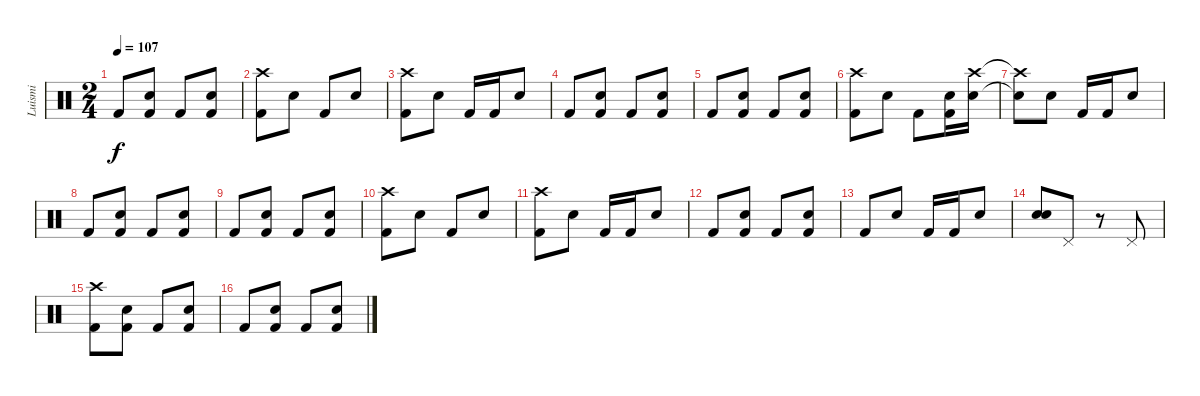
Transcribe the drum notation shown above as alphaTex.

\track ("Luismi" "Luismi") {instrument percussion}
\staff {score}
\articulation defaults
\ts (2 4)
\tempo 107
\clef neutral
\ks c "Kick (hit) 2".8{dy f}
("Snare (hit) 2" "Kick (hit) 2").8 "Kick (hit) 2".8 ("Snare (hit) 2" "Kick (hit) 2").8 |
("Crash high (hit)" "Kick (hit) 2").8 "Snare (hit) 2".8 "Kick (hit) 2".8 "Snare (hit) 2".8 |
("Crash high (hit)" "Kick (hit) 2").8 "Snare (hit) 2".8 "Kick (hit) 2".16 "Kick (hit) 2".16 "Snare (hit) 2".8 |
"Kick (hit) 2".8 ("Snare (hit) 2" "Kick (hit) 2").8 "Kick (hit) 2".8 ("Snare (hit) 2" "Kick (hit) 2").8 |
"Kick (hit) 2".8 ("Snare (hit) 2" "Kick (hit) 2").8 "Kick (hit) 2".8 ("Snare (hit) 2" "Kick (hit) 2").8 |
("Crash high (hit)" "Kick (hit) 2").8 "Snare (hit) 2".8 "Kick (hit) 2".8 ("Snare (hit) 2" "Kick (hit) 2").16 ("Crash high (hit)" "Snare (hit) 2").16 |
("Crash high (hit)"{t} "Snare (hit)"{t}).8 "Snare (hit) 2".8 "Kick (hit) 2".16 "Kick (hit) 2".16 "Snare (hit) 2".8 |
"Kick (hit) 2".8 ("Snare (hit) 2" "Kick (hit) 2").8 "Kick (hit) 2".8 ("Snare (hit) 2" "Kick (hit) 2").8 |
"Kick (hit) 2".8 ("Snare (hit) 2" "Kick (hit) 2").8 "Kick (hit) 2".8 ("Snare (hit) 2" "Kick (hit) 2").8 |
("Crash high (hit)" "Kick (hit) 2").8 "Snare (hit) 2".8 "Kick (hit) 2".8 "Snare (hit) 2".8 |
("Crash high (hit)" "Kick (hit) 2").8 "Snare (hit) 2".8 "Kick (hit) 2".16 "Kick (hit) 2".16 "Snare (hit) 2".8 |
"Kick (hit) 2".8 ("Snare (hit) 2" "Kick (hit) 2").8 "Kick (hit) 2".8 ("Snare (hit) 2" "Kick (hit) 2").8 |
"Kick (hit) 2".8 "Snare (hit) 2".8 "Kick (hit) 2".16 "Kick (hit) 2".16 "Snare (hit) 2".8 |
("Snare (hit) 2" "Electric Snare (hit)").8 "Pedal Hi-Hat (hit)".8 r.8 "Pedal Hi-Hat (hit)".8 |
("Crash high (hit)" "Kick (hit) 2").8 ("Snare (hit) 2" "Kick (hit) 2").8 "Kick (hit) 2".8 ("Snare (hit) 2" "Kick (hit) 2").8 |
"Kick (hit) 2".8 ("Snare (hit) 2" "Kick (hit) 2").8 "Kick (hit) 2".8 ("Snare (hit) 2" "Kick (hit) 2").8
